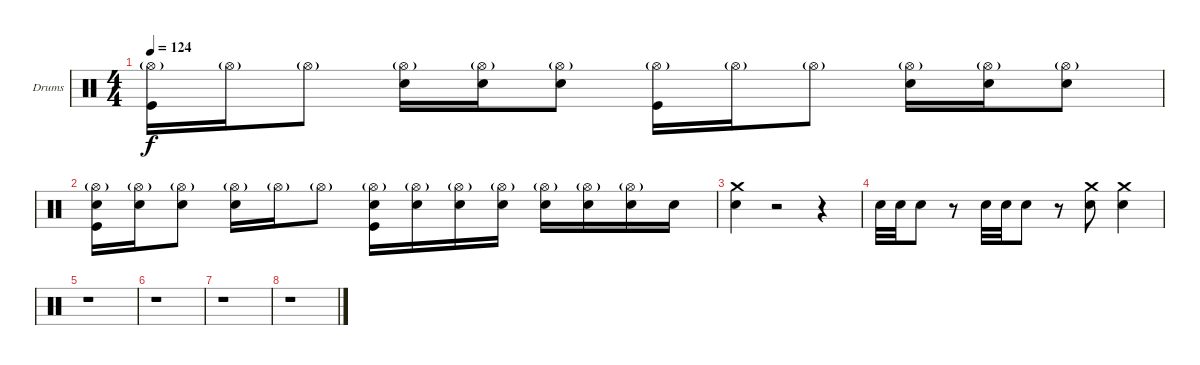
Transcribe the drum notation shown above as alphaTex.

\bracketExtendMode groupsimilarinstruments
\firstSystemTrackNameOrientation horizontal
\otherSystemsTrackNameOrientation horizontal
\track ("Drumkit" "Drums") {instrument percussion}
\staff {score}
\articulation defaults
\ts (4 4)
\tempo 124
\clef neutral
\ks c
("Kick (hit)" "Hi-Hat (open)"{g}).16{dy f} "Hi-Hat (open)"{g}.16 "Hi-Hat (open)"{g}.8 ("Snare (hit) 2" "Hi-Hat (open)"{g}).16 ("Snare (hit) 2" "Hi-Hat (open)"{g}).16 ("Snare (hit) 2" "Hi-Hat (open)"{g}).8 ("Kick (hit)" "Hi-Hat (open)"{g}).16 "Hi-Hat (open)"{g}.16 "Hi-Hat (open)"{g}.8 ("Snare (hit) 2" "Hi-Hat (open)"{g}).16 ("Snare (hit) 2" "Hi-Hat (open)"{g}).16 ("Snare (hit) 2" "Hi-Hat (open)"{g}).8 |
("Kick (hit)" "Snare (hit) 2" "Hi-Hat (open)"{g}).16 ("Snare (hit) 2" "Hi-Hat (open)"{g}).16 ("Snare (hit) 2" "Hi-Hat (open)"{g}).8 ("Snare (hit) 2" "Hi-Hat (open)"{g}).16 "Hi-Hat (open)"{g}.16 "Hi-Hat (open)"{g}.8 ("Kick (hit)" "Snare (hit) 2" "Hi-Hat (open)"{g}).16 ("Snare (hit) 2" "Hi-Hat (open)"{g}).16 ("Snare (hit) 2" "Hi-Hat (open)"{g}).16 ("Snare (hit) 2" "Hi-Hat (open)"{g}).16 ("Snare (hit) 2" "Hi-Hat (open)"{g}).16 ("Snare (hit) 2" "Hi-Hat (open)"{g}).16 ("Snare (hit) 2" "Hi-Hat (open)"{g}).16 "Snare (hit) 2".16 |
("Snare (hit) 2" "Crash medium (hit)").4 r.2 r.4 |
"Snare (hit) 2".32 "Snare (hit) 2".32 "Snare (hit) 2".8 r.8 "Snare (hit) 2".32 "Snare (hit) 2".32 "Snare (hit) 2".8 r.8 ("Snare (hit) 2" "Crash medium (hit)").8 ("Snare (hit) 2" "Crash medium (hit)").4 |
r.1 |
r.1 |
r.1 |
r.1
